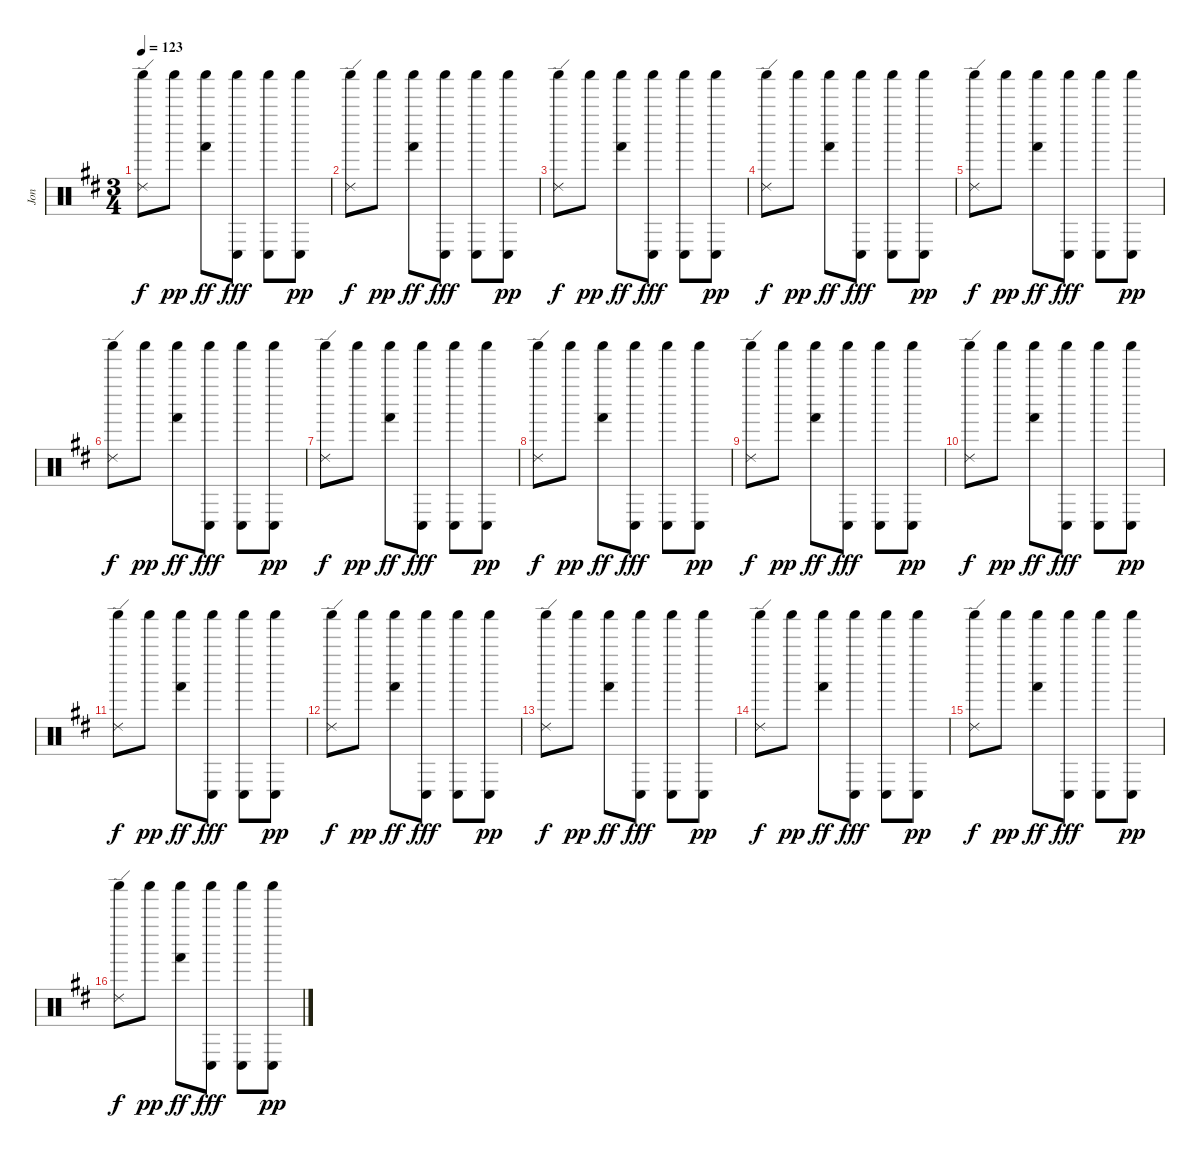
\track ("Jon" "Jon") {instrument percussion}
\staff {score}
\articulation defaults
\ts (3 4)
\tempo 123
\clef neutral
\ks d
("Shaker (hit)" "Ride (edge) 2").8{dy f} "Shaker (hit)".8{dy pp} ("Shaker (hit)" "Hand (hit)").8{dy ff} ("Shaker (hit)" "Conga low (hit)").8{dy fff} ("Shaker (hit)" "Conga low (hit)").8 ("Shaker (hit)" "Conga low (hit)").8{dy pp} |
("Shaker (hit)" "Ride (edge) 2").8{dy f} "Shaker (hit)".8{dy pp} ("Shaker (hit)" "Hand (hit)").8{dy ff} ("Shaker (hit)" "Conga low (hit)").8{dy fff} ("Shaker (hit)" "Conga low (hit)").8 ("Shaker (hit)" "Conga low (hit)").8{dy pp} |
("Shaker (hit)" "Ride (edge) 2").8{dy f} "Shaker (hit)".8{dy pp} ("Shaker (hit)" "Hand (hit)").8{dy ff} ("Shaker (hit)" "Conga low (hit)").8{dy fff} ("Shaker (hit)" "Conga low (hit)").8 ("Shaker (hit)" "Conga low (hit)").8{dy pp} |
("Shaker (hit)" "Ride (edge) 2").8{dy f} "Shaker (hit)".8{dy pp} ("Shaker (hit)" "Hand (hit)").8{dy ff} ("Shaker (hit)" "Conga low (hit)").8{dy fff} ("Shaker (hit)" "Conga low (hit)").8 ("Shaker (hit)" "Conga low (hit)").8{dy pp} |
("Shaker (hit)" "Ride (edge) 2").8{dy f} "Shaker (hit)".8{dy pp} ("Shaker (hit)" "Hand (hit)").8{dy ff} ("Shaker (hit)" "Conga low (hit)").8{dy fff} ("Shaker (hit)" "Conga low (hit)").8 ("Shaker (hit)" "Conga low (hit)").8{dy pp} |
("Shaker (hit)" "Ride (edge) 2").8{dy f} "Shaker (hit)".8{dy pp} ("Shaker (hit)" "Hand (hit)").8{dy ff} ("Shaker (hit)" "Conga low (hit)").8{dy fff} ("Shaker (hit)" "Conga low (hit)").8 ("Shaker (hit)" "Conga low (hit)").8{dy pp} |
("Shaker (hit)" "Ride (edge) 2").8{dy f} "Shaker (hit)".8{dy pp} ("Shaker (hit)" "Hand (hit)").8{dy ff} ("Shaker (hit)" "Conga low (hit)").8{dy fff} ("Shaker (hit)" "Conga low (hit)").8 ("Shaker (hit)" "Conga low (hit)").8{dy pp} |
\section ("" "")
("Shaker (hit)" "Ride (edge) 2").8{dy f} "Shaker (hit)".8{dy pp} ("Shaker (hit)" "Hand (hit)").8{dy ff} ("Shaker (hit)" "Conga low (hit)").8{dy fff} ("Shaker (hit)" "Conga low (hit)").8 ("Shaker (hit)" "Conga low (hit)").8{dy pp} |
("Shaker (hit)" "Ride (edge) 2").8{dy f} "Shaker (hit)".8{dy pp} ("Shaker (hit)" "Hand (hit)").8{dy ff} ("Shaker (hit)" "Conga low (hit)").8{dy fff} ("Shaker (hit)" "Conga low (hit)").8 ("Shaker (hit)" "Conga low (hit)").8{dy pp} |
("Shaker (hit)" "Ride (edge) 2").8{dy f} "Shaker (hit)".8{dy pp} ("Shaker (hit)" "Hand (hit)").8{dy ff} ("Shaker (hit)" "Conga low (hit)").8{dy fff} ("Shaker (hit)" "Conga low (hit)").8 ("Shaker (hit)" "Conga low (hit)").8{dy pp} |
("Shaker (hit)" "Ride (edge) 2").8{dy f} "Shaker (hit)".8{dy pp} ("Shaker (hit)" "Hand (hit)").8{dy ff} ("Shaker (hit)" "Conga low (hit)").8{dy fff} ("Shaker (hit)" "Conga low (hit)").8 ("Shaker (hit)" "Conga low (hit)").8{dy pp} |
("Shaker (hit)" "Ride (edge) 2").8{dy f} "Shaker (hit)".8{dy pp} ("Shaker (hit)" "Hand (hit)").8{dy ff} ("Shaker (hit)" "Conga low (hit)").8{dy fff} ("Shaker (hit)" "Conga low (hit)").8 ("Shaker (hit)" "Conga low (hit)").8{dy pp} |
("Shaker (hit)" "Ride (edge) 2").8{dy f} "Shaker (hit)".8{dy pp} ("Shaker (hit)" "Hand (hit)").8{dy ff} ("Shaker (hit)" "Conga low (hit)").8{dy fff} ("Shaker (hit)" "Conga low (hit)").8 ("Shaker (hit)" "Conga low (hit)").8{dy pp} |
("Shaker (hit)" "Ride (edge) 2").8{dy f} "Shaker (hit)".8{dy pp} ("Shaker (hit)" "Hand (hit)").8{dy ff} ("Shaker (hit)" "Conga low (hit)").8{dy fff} ("Shaker (hit)" "Conga low (hit)").8 ("Shaker (hit)" "Conga low (hit)").8{dy pp} |
("Shaker (hit)" "Ride (edge) 2").8{dy f} "Shaker (hit)".8{dy pp} ("Shaker (hit)" "Hand (hit)").8{dy ff} ("Shaker (hit)" "Conga low (hit)").8{dy fff} ("Shaker (hit)" "Conga low (hit)").8 ("Shaker (hit)" "Conga low (hit)").8{dy pp} |
\section ("" "")
("Shaker (hit)" "Ride (edge) 2").8{dy f} "Shaker (hit)".8{dy pp} ("Shaker (hit)" "Hand (hit)").8{dy ff} ("Shaker (hit)" "Conga low (hit)").8{dy fff} ("Shaker (hit)" "Conga low (hit)").8 ("Shaker (hit)" "Conga low (hit)").8{dy pp}
